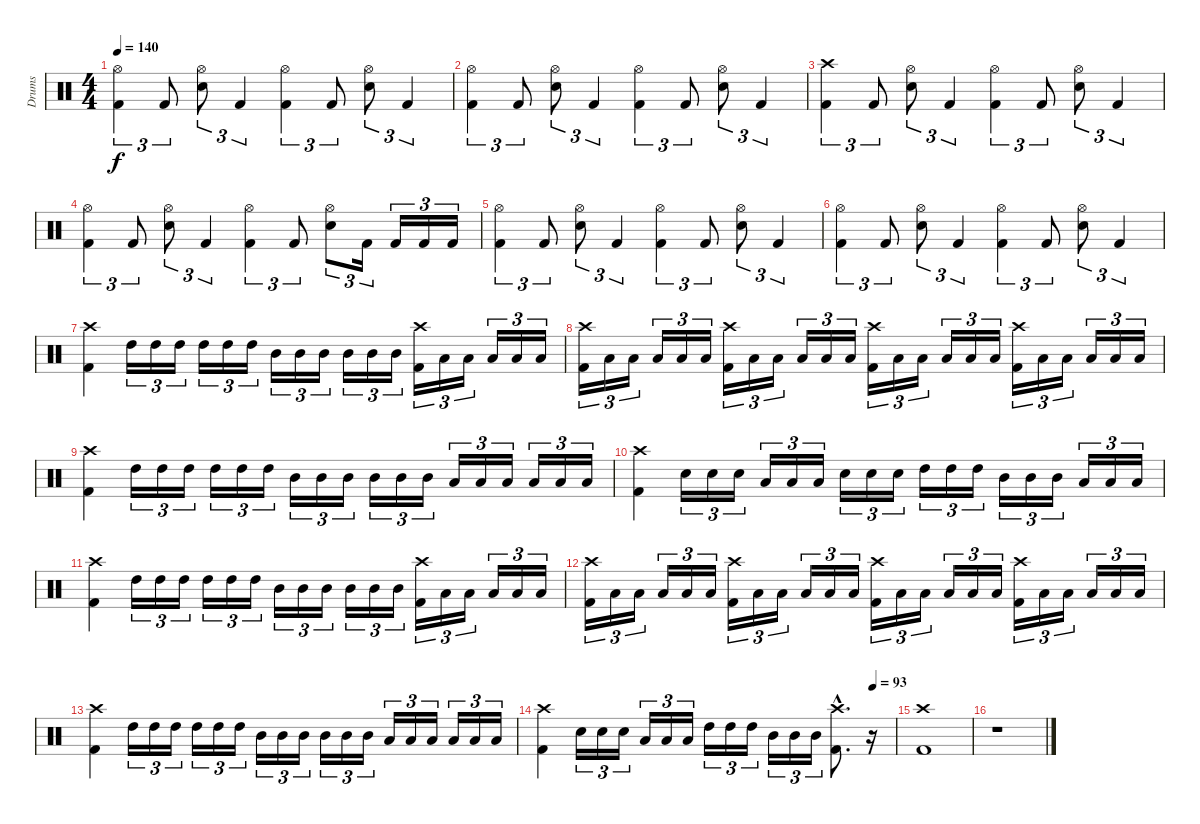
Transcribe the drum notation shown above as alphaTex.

\track ("Drums" "Drums") {instrument percussion}
\staff {score}
\articulation defaults
\ts (4 4)
\tempo 140
\clef neutral
\ks c
("Hi-Hat (open)" "Kick (hit) 2").4{tu (3 2) dy f} "Kick (hit) 2".8{tu (3 2)} ("Hi-Hat (open)" "Electric Snare (hit)").8{tu (3 2)} "Kick (hit) 2".4{tu (3 2)} ("Hi-Hat (open)" "Kick (hit) 2").4{tu (3 2)} "Kick (hit) 2".8{tu (3 2)} ("Hi-Hat (open)" "Electric Snare (hit)").8{tu (3 2)} "Kick (hit) 2".4{tu (3 2)} |
("Hi-Hat (open)" "Kick (hit) 2").4{tu (3 2)} "Kick (hit) 2".8{tu (3 2)} ("Hi-Hat (open)" "Electric Snare (hit)").8{tu (3 2)} "Kick (hit) 2".4{tu (3 2)} ("Hi-Hat (open)" "Kick (hit) 2").4{tu (3 2)} "Kick (hit) 2".8{tu (3 2)} ("Hi-Hat (open)" "Electric Snare (hit)").8{tu (3 2)} "Kick (hit) 2".4{tu (3 2)} |
("Crash high (hit)" "Kick (hit) 2").4{tu (3 2)} "Kick (hit) 2".8{tu (3 2)} ("Hi-Hat (open)" "Electric Snare (hit)").8{tu (3 2)} "Kick (hit) 2".4{tu (3 2)} ("Hi-Hat (open)" "Kick (hit) 2").4{tu (3 2)} "Kick (hit) 2".8{tu (3 2)} ("Hi-Hat (open)" "Electric Snare (hit)").8{tu (3 2)} "Kick (hit) 2".4{tu (3 2)} |
("Hi-Hat (open)" "Kick (hit) 2").4{tu (3 2)} "Kick (hit) 2".8{tu (3 2)} ("Hi-Hat (open)" "Electric Snare (hit)").8{tu (3 2)} "Kick (hit) 2".4{tu (3 2)} ("Hi-Hat (open)" "Kick (hit) 2").4{tu (3 2)} "Kick (hit) 2".8{tu (3 2)} ("Hi-Hat (open)" "Electric Snare (hit)").8{tu (3 2)} "Kick (hit) 2".16{tu (3 2)} "Kick (hit) 2".16{tu (3 2)} "Kick (hit) 2".16{tu (3 2)} "Kick (hit) 2".16{tu (3 2)} |
("Hi-Hat (open)" "Kick (hit) 2").4{tu (3 2)} "Kick (hit) 2".8{tu (3 2)} ("Hi-Hat (open)" "Electric Snare (hit)").8{tu (3 2)} "Kick (hit) 2".4{tu (3 2)} ("Hi-Hat (open)" "Kick (hit) 2").4{tu (3 2)} "Kick (hit) 2".8{tu (3 2)} ("Hi-Hat (open)" "Electric Snare (hit)").8{tu (3 2)} "Kick (hit) 2".4{tu (3 2)} |
("Hi-Hat (open)" "Kick (hit) 2").4{tu (3 2)} "Kick (hit) 2".8{tu (3 2)} ("Hi-Hat (open)" "Electric Snare (hit)").8{tu (3 2)} "Kick (hit) 2".4{tu (3 2)} ("Hi-Hat (open)" "Kick (hit) 2").4{tu (3 2)} "Kick (hit) 2".8{tu (3 2)} ("Hi-Hat (open)" "Electric Snare (hit)").8{tu (3 2)} "Kick (hit) 2".4{tu (3 2)} |
("Crash high (hit)" "Kick (hit) 2").4 "High Tom (hit)".16{tu (3 2)} "High Tom (hit)".16{tu (3 2)} "High Tom (hit)".16{tu (3 2)} "High Tom (hit)".16{tu (3 2)} "High Tom (hit)".16{tu (3 2)} "High Tom (hit)".16{tu (3 2)} "Mid Tom (hit)".16{tu (3 2)} "Mid Tom (hit)".16{tu (3 2)} "Mid Tom (hit)".16{tu (3 2)} "Mid Tom (hit)".16{tu (3 2)} "Mid Tom (hit)".16{tu (3 2)} "Mid Tom (hit)".16{tu (3 2)} ("Crash high (hit)" "Kick (hit) 2").16{tu (3 2)} "Low Floor Tom (hit)".16{tu (3 2)} "Low Floor Tom (hit)".16{tu (3 2)} "Low Floor Tom (hit)".16{tu (3 2)} "Low Floor Tom (hit)".16{tu (3 2)} "Low Floor Tom (hit)".16{tu (3 2)} |
("Crash high (hit)" "Kick (hit) 2").16{tu (3 2)} "Low Floor Tom (hit)".16{tu (3 2)} "Low Floor Tom (hit)".16{tu (3 2)} "Low Floor Tom (hit)".16{tu (3 2)} "Low Floor Tom (hit)".16{tu (3 2)} "Low Floor Tom (hit)".16{tu (3 2)} ("Crash high (hit)" "Kick (hit) 2").16{tu (3 2)} "Low Floor Tom (hit)".16{tu (3 2)} "Low Floor Tom (hit)".16{tu (3 2)} "Low Floor Tom (hit)".16{tu (3 2)} "Low Floor Tom (hit)".16{tu (3 2)} "Low Floor Tom (hit)".16{tu (3 2)} ("Crash high (hit)" "Kick (hit) 2").16{tu (3 2)} "Low Floor Tom (hit)".16{tu (3 2)} "Low Floor Tom (hit)".16{tu (3 2)} "Low Floor Tom (hit)".16{tu (3 2)} "Low Floor Tom (hit)".16{tu (3 2)} "Low Floor Tom (hit)".16{tu (3 2)} ("Crash high (hit)" "Kick (hit) 2").16{tu (3 2)} "Low Floor Tom (hit)".16{tu (3 2)} "Low Floor Tom (hit)".16{tu (3 2)} "Low Floor Tom (hit)".16{tu (3 2)} "Low Floor Tom (hit)".16{tu (3 2)} "Low Floor Tom (hit)".16{tu (3 2)} |
("Crash high (hit)" "Kick (hit) 2").4 "High Tom (hit)".16{tu (3 2)} "High Tom (hit)".16{tu (3 2)} "High Tom (hit)".16{tu (3 2)} "High Tom (hit)".16{tu (3 2)} "High Tom (hit)".16{tu (3 2)} "High Tom (hit)".16{tu (3 2)} "Mid Tom (hit)".16{tu (3 2)} "Mid Tom (hit)".16{tu (3 2)} "Mid Tom (hit)".16{tu (3 2)} "Mid Tom (hit)".16{tu (3 2)} "Mid Tom (hit)".16{tu (3 2)} "Mid Tom (hit)".16{tu (3 2)} "Low Floor Tom (hit)".16{tu (3 2)} "Low Floor Tom (hit)".16{tu (3 2)} "Low Floor Tom (hit)".16{tu (3 2)} "Low Floor Tom (hit)".16{tu (3 2)} "Low Floor Tom (hit)".16{tu (3 2)} "Low Floor Tom (hit)".16{tu (3 2)} |
("Crash high (hit)" "Kick (hit) 2").4 "Electric Snare (hit)".16{tu (3 2)} "Electric Snare (hit)".16{tu (3 2)} "Electric Snare (hit)".16{tu (3 2)} "Low Tom (hit)".16{tu (3 2)} "Low Tom (hit)".16{tu (3 2)} "Low Tom (hit)".16{tu (3 2)} "Electric Snare (hit)".16{tu (3 2)} "Electric Snare (hit)".16{tu (3 2)} "Electric Snare (hit)".16{tu (3 2)} "High Tom (hit)".16{tu (3 2)} "High Tom (hit)".16{tu (3 2)} "High Tom (hit)".16{tu (3 2)} "Mid Tom (hit)".16{tu (3 2)} "Mid Tom (hit)".16{tu (3 2)} "Mid Tom (hit)".16{tu (3 2)} "Low Tom (hit)".16{tu (3 2)} "Low Tom (hit)".16{tu (3 2)} "Low Tom (hit)".16{tu (3 2)} |
("Crash high (hit)" "Kick (hit) 2").4 "High Tom (hit)".16{tu (3 2)} "High Tom (hit)".16{tu (3 2)} "High Tom (hit)".16{tu (3 2)} "High Tom (hit)".16{tu (3 2)} "High Tom (hit)".16{tu (3 2)} "High Tom (hit)".16{tu (3 2)} "Mid Tom (hit)".16{tu (3 2)} "Mid Tom (hit)".16{tu (3 2)} "Mid Tom (hit)".16{tu (3 2)} "Mid Tom (hit)".16{tu (3 2)} "Mid Tom (hit)".16{tu (3 2)} "Mid Tom (hit)".16{tu (3 2)} ("Crash high (hit)" "Kick (hit) 2").16{tu (3 2)} "Low Floor Tom (hit)".16{tu (3 2)} "Low Floor Tom (hit)".16{tu (3 2)} "Low Floor Tom (hit)".16{tu (3 2)} "Low Floor Tom (hit)".16{tu (3 2)} "Low Floor Tom (hit)".16{tu (3 2)} |
("Crash high (hit)" "Kick (hit) 2").16{tu (3 2)} "Low Floor Tom (hit)".16{tu (3 2)} "Low Floor Tom (hit)".16{tu (3 2)} "Low Floor Tom (hit)".16{tu (3 2)} "Low Floor Tom (hit)".16{tu (3 2)} "Low Floor Tom (hit)".16{tu (3 2)} ("Crash high (hit)" "Kick (hit) 2").16{tu (3 2)} "Low Floor Tom (hit)".16{tu (3 2)} "Low Floor Tom (hit)".16{tu (3 2)} "Low Floor Tom (hit)".16{tu (3 2)} "Low Floor Tom (hit)".16{tu (3 2)} "Low Floor Tom (hit)".16{tu (3 2)} ("Crash high (hit)" "Kick (hit) 2").16{tu (3 2)} "Low Floor Tom (hit)".16{tu (3 2)} "Low Floor Tom (hit)".16{tu (3 2)} "Low Floor Tom (hit)".16{tu (3 2)} "Low Floor Tom (hit)".16{tu (3 2)} "Low Floor Tom (hit)".16{tu (3 2)} ("Crash high (hit)" "Kick (hit) 2").16{tu (3 2)} "Low Floor Tom (hit)".16{tu (3 2)} "Low Floor Tom (hit)".16{tu (3 2)} "Low Floor Tom (hit)".16{tu (3 2)} "Low Floor Tom (hit)".16{tu (3 2)} "Low Floor Tom (hit)".16{tu (3 2)} |
("Crash high (hit)" "Kick (hit) 2").4 "High Tom (hit)".16{tu (3 2)} "High Tom (hit)".16{tu (3 2)} "High Tom (hit)".16{tu (3 2)} "High Tom (hit)".16{tu (3 2)} "High Tom (hit)".16{tu (3 2)} "High Tom (hit)".16{tu (3 2)} "Mid Tom (hit)".16{tu (3 2)} "Mid Tom (hit)".16{tu (3 2)} "Mid Tom (hit)".16{tu (3 2)} "Mid Tom (hit)".16{tu (3 2)} "Mid Tom (hit)".16{tu (3 2)} "Mid Tom (hit)".16{tu (3 2)} "Low Floor Tom (hit)".16{tu (3 2)} "Low Floor Tom (hit)".16{tu (3 2)} "Low Floor Tom (hit)".16{tu (3 2)} "Low Floor Tom (hit)".16{tu (3 2)} "Low Floor Tom (hit)".16{tu (3 2)} "Low Floor Tom (hit)".16{tu (3 2)} |
\tempo (93 0.9375)
("Crash high (hit)" "Kick (hit) 2").4 "Electric Snare (hit)".16{tu (3 2)} "Electric Snare (hit)".16{tu (3 2)} "Electric Snare (hit)".16{tu (3 2)} "Low Tom (hit)".16{tu (3 2)} "Low Tom (hit)".16{tu (3 2)} "Low Tom (hit)".16{tu (3 2)} "High Tom (hit)".16{tu (3 2)} "High Tom (hit)".16{tu (3 2)} "High Tom (hit)".16{tu (3 2)} "Mid Tom (hit)".16{tu (3 2)} "Mid Tom (hit)".16{tu (3 2)} "Mid Tom (hit)".16{tu (3 2)} ("Crash high (hit)"{hac} "Kick (hit) 2"{hac}).8{d} r.16 |
("Crash high (hit)" "Kick (hit) 2").1 |
r.1
